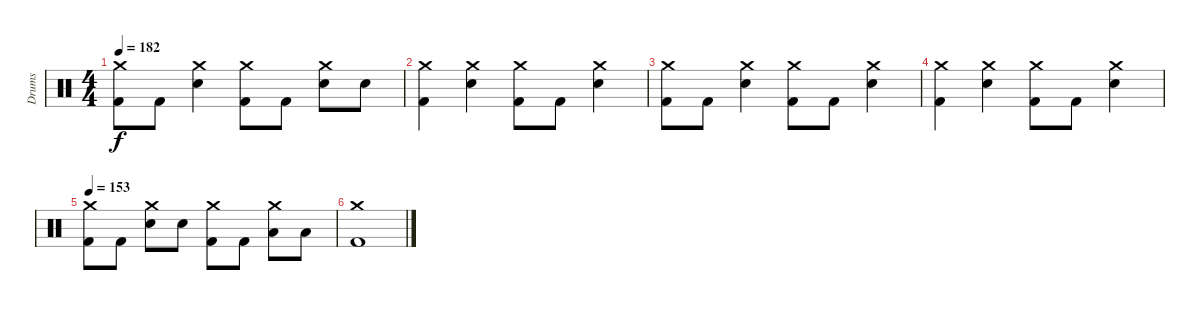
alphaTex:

\track ("Drums" "Drums") {instrument percussion}
\staff {score}
\articulation defaults
\ts (4 4)
\tempo 182
\clef neutral
\ks c
("Crash medium (hit)" "Kick (hit) 2").8{dy f} "Kick (hit) 2".8 ("Crash medium (hit)" "Electric Snare (hit)").4 ("Crash medium (hit)" "Kick (hit) 2").8 "Kick (hit) 2".8 ("Crash medium (hit)" "Electric Snare (hit)").8 "Electric Snare (hit)".8 |
("Crash medium (hit)" "Kick (hit) 2").4 ("Crash medium (hit)" "Electric Snare (hit)").4 ("Crash medium (hit)" "Kick (hit) 2").8 "Kick (hit) 2".8 ("Crash medium (hit)" "Electric Snare (hit)").4 |
("Crash medium (hit)" "Kick (hit) 2").8 "Kick (hit) 2".8 ("Crash medium (hit)" "Electric Snare (hit)").4 ("Crash medium (hit)" "Kick (hit) 2").8 "Kick (hit) 2".8 ("Crash medium (hit)" "Electric Snare (hit)").4 |
("Crash medium (hit)" "Kick (hit) 2").4 ("Crash medium (hit)" "Electric Snare (hit)").4 ("Crash medium (hit)" "Kick (hit) 2").8 "Kick (hit) 2".8 ("Crash medium (hit)" "Electric Snare (hit)").4 |
\tempo 153
("Crash medium (hit)" "Kick (hit) 2").8 "Kick (hit) 2".8 ("Crash medium (hit)" "Electric Snare (hit)").8 "Electric Snare (hit)".8 ("Crash medium (hit)" "Kick (hit) 2").8 "Kick (hit) 2".8 ("Crash medium (hit)" "Low Tom (hit)").8 "Low Tom (hit)".8 |
("Crash medium (hit)" "Kick (hit) 2").1
